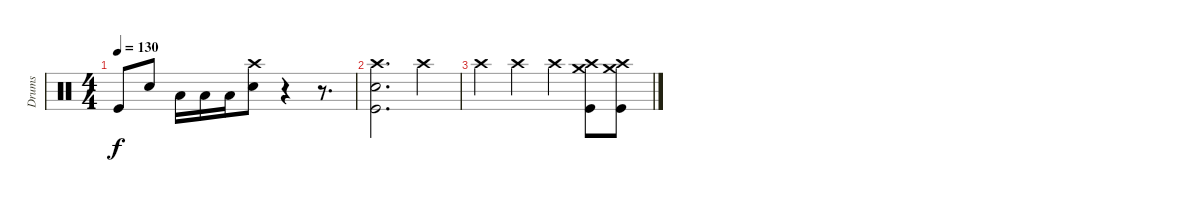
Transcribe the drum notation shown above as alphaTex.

\track ("Drums" "Drums") {instrument percussion}
\staff {score}
\articulation defaults
\ts (4 4)
\tempo 130
\clef neutral
\ks c "Kick (hit)".8{dy f} "Snare (hit) 2".8 "Low Floor Tom (hit)".16 "Low Floor Tom (hit)".16 "Low Floor Tom (hit)".16
("Crash high (hit)" "Snare (hit) 2").8 r.4 r.8{d} |
("Crash high (hit)" "Snare (hit) 2" "Kick (hit)").2{d} "Crash high (hit)".4 |
"Crash high (hit)".4 "Crash high (hit)".4 "Crash high (hit)".4 ("Crash medium (hit)" "Crash high (hit)" "Kick (hit)").8 ("Crash medium (hit)" "Crash high (hit)" "Kick (hit)").8
